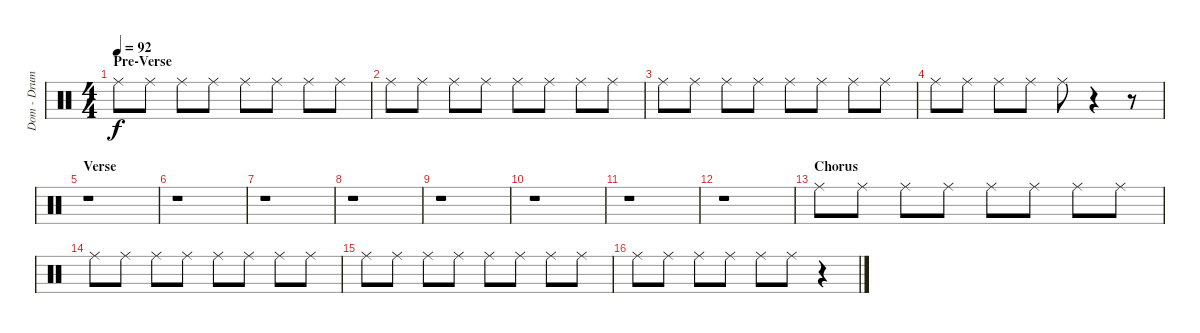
\track ("Dom - Drums 2" "Dom - Drum") {instrument percussion}
\staff {score}
\articulation defaults
\ts (4 4)
\section ("" "Pre-Verse")
\tempo 92
\clef neutral
\ks c "Ride (middle)".8{dy f} "Ride (middle)".8 "Ride (middle)".8 "Ride (middle)".8 "Ride (middle)".8 "Ride (middle)".8 "Ride (middle)".8 "Ride (middle)".8
|
"Ride (middle)".8 "Ride (middle)".8 "Ride (middle)".8 "Ride (middle)".8 "Ride (middle)".8 "Ride (middle)".8 "Ride (middle)".8 "Ride (middle)".8 |
"Ride (middle)".8 "Ride (middle)".8 "Ride (middle)".8 "Ride (middle)".8 "Ride (middle)".8 "Ride (middle)".8 "Ride (middle)".8 "Ride (middle)".8 |
"Ride (middle)".8 "Ride (middle)".8 "Ride (middle)".8 "Ride (middle)".8 "Ride (middle)".8 r.4 r.8 |
\section ("" "Verse")
r.1 |
r.1 |
r.1 |
r.1 |
r.1 |
r.1 |
r.1 |
r.1 |
\section ("" "Chorus")
"Ride (middle)".8 "Ride (middle)".8 "Ride (middle)".8 "Ride (middle)".8 "Ride (middle)".8 "Ride (middle)".8 "Ride (middle)".8 "Ride (middle)".8 |
"Ride (middle)".8 "Ride (middle)".8 "Ride (middle)".8 "Ride (middle)".8 "Ride (middle)".8 "Ride (middle)".8 "Ride (middle)".8 "Ride (middle)".8 |
"Ride (middle)".8 "Ride (middle)".8 "Ride (middle)".8 "Ride (middle)".8 "Ride (middle)".8 "Ride (middle)".8 "Ride (middle)".8 "Ride (middle)".8 |
"Ride (middle)".8 "Ride (middle)".8 "Ride (middle)".8 "Ride (middle)".8 "Ride (middle)".8 "Ride (middle)".8 r.4
